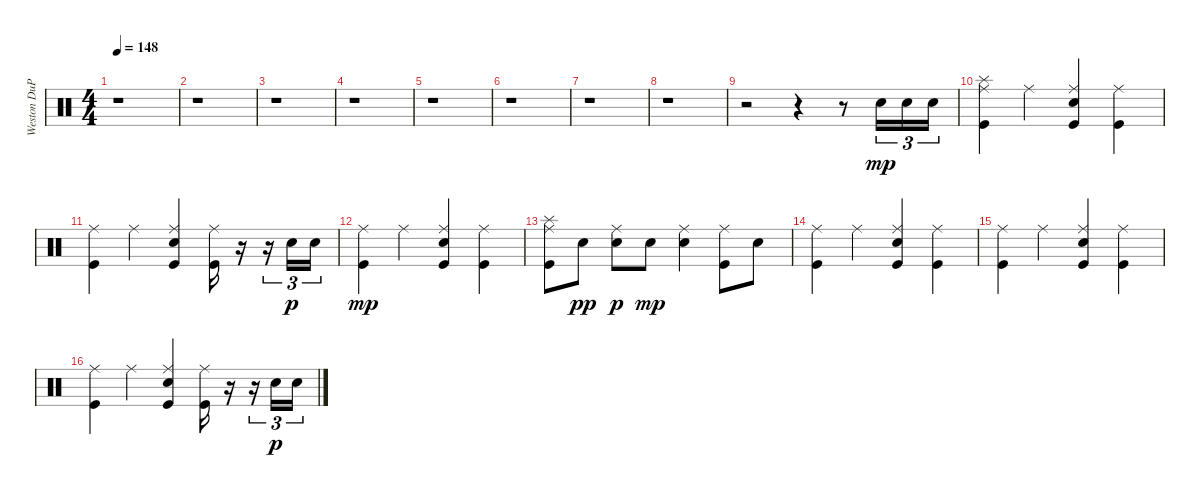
\track ("Weston DuPree" "Weston DuP") {instrument percussion}
\staff {score}
\articulation defaults
\ts (4 4)
\tempo 148
\clef neutral
\ks c
r.1{dy mp} |
r.1 |
r.1 |
r.1 |
r.1 |
r.1 |
r.1 |
r.1 |
r.2 r.4 r.8 "Snare (hit) 2".16{tu (3 2)} "Snare (hit) 2".16{tu (3 2)} "Snare (hit) 2".16{tu (3 2)} |
("Splash (hit)" "Kick (hit)" "Ride (middle)").4 "Ride (middle)".4 ("Electric Snare (hit)" "Kick (hit)" "Ride (middle)").4 ("Ride (middle)" "Kick (hit)").4 |
("Ride (middle)" "Kick (hit)").4 "Ride (middle)".4 ("Ride (middle)" "Kick (hit)" "Electric Snare (hit)").4 ("Ride (middle)" "Kick (hit)").16 r.16 r.16{tu (3 2)} "Snare (hit) 2".16{tu (3 2) dy p} "Snare (hit) 2".16{tu (3 2)} |
("Kick (hit)" "Ride (middle)").4{dy mp} "Ride (middle)".4 ("Electric Snare (hit)" "Kick (hit)" "Ride (middle)").4 ("Ride (middle)" "Kick (hit)").4 |
("Splash (hit)" "Kick (hit)" "Ride (middle)").8 "Electric Snare (hit)".8{dy pp} ("Ride (middle)" "Electric Snare (hit)").8{dy p} "Electric Snare (hit)".8{dy mp} ("Ride (middle)" "Electric Snare (hit)").4 ("Ride (middle)" "Kick (hit)").8 "Electric Snare (hit)".8 |
("Kick (hit)" "Ride (middle)").4 "Ride (middle)".4 ("Electric Snare (hit)" "Kick (hit)" "Ride (middle)").4 ("Ride (middle)" "Kick (hit)").4 |
("Ride (middle)" "Kick (hit)").4 "Ride (middle)".4 ("Ride (middle)" "Kick (hit)" "Electric Snare (hit)").4 ("Ride (middle)" "Kick (hit)").4 |
("Kick (hit)" "Ride (middle)").4 "Ride (middle)".4 ("Electric Snare (hit)" "Kick (hit)" "Ride (middle)").4 ("Ride (middle)" "Kick (hit)").16 r.16 r.16{tu (3 2)} "Snare (hit) 2".16{tu (3 2) dy p} "Snare (hit) 2".16{tu (3 2)}
